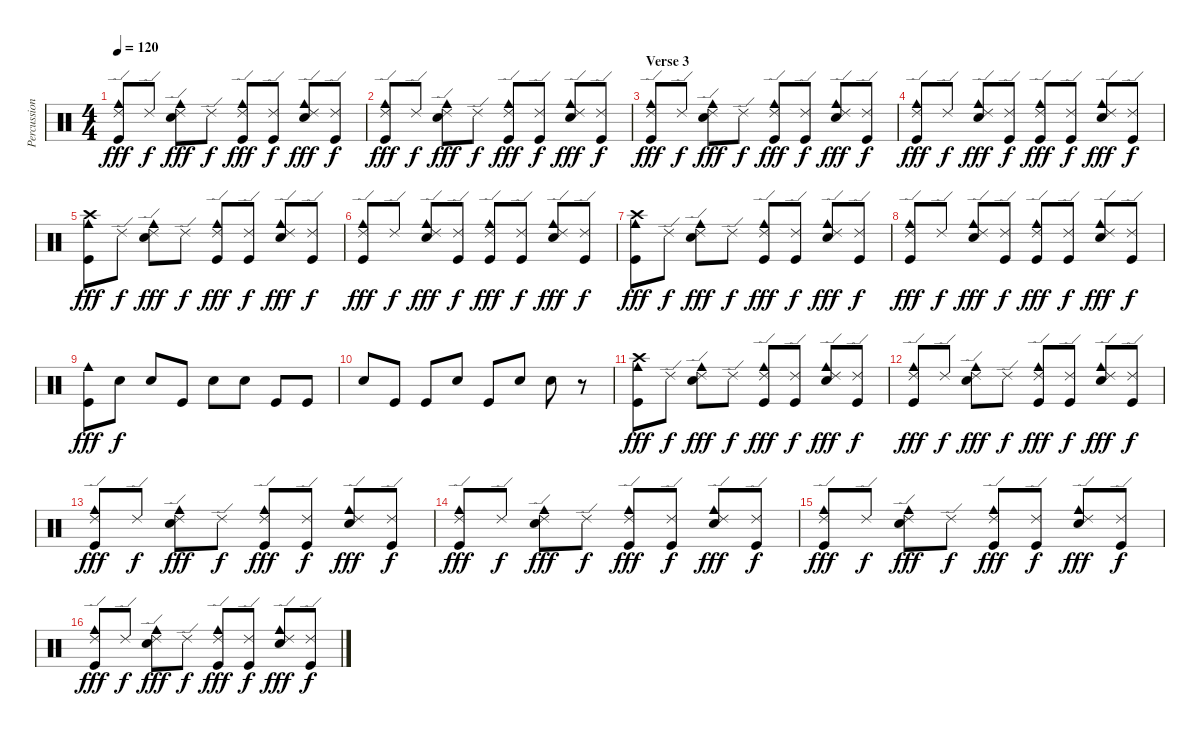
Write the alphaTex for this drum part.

\track ("Percussion" "Percussion") {instrument percussion}
\staff {score}
\articulation defaults
\ts (4 4)
\tempo 120
\clef neutral
\ks c
("Ride (edge) 2" "Cowbell medium (hit)" "Kick (hit)").8{dy fff} "Ride (edge) 2".8{dy f} ("Ride (edge) 2" "Cowbell medium (hit)" "Snare (hit) 2").8{dy fff} "Ride (edge) 2".8{dy f} ("Ride (edge) 2" "Cowbell medium (hit)" "Kick (hit)").8{dy fff} ("Ride (edge) 2" "Kick (hit)").8{dy f} ("Ride (edge) 2" "Cowbell medium (hit)" "Snare (hit) 2").8{dy fff} ("Ride (edge) 2" "Kick (hit)").8{dy f} |
("Ride (edge) 2" "Cowbell medium (hit)" "Kick (hit)").8{dy fff} "Ride (edge) 2".8{dy f} ("Ride (edge) 2" "Cowbell medium (hit)" "Snare (hit) 2").8{dy fff} "Ride (edge) 2".8{dy f} ("Ride (edge) 2" "Cowbell medium (hit)" "Kick (hit)").8{dy fff} ("Ride (edge) 2" "Kick (hit)").8{dy f} ("Ride (edge) 2" "Cowbell medium (hit)" "Snare (hit) 2").8{dy fff} ("Ride (edge) 2" "Kick (hit)").8{dy f} |
\section ("" "Verse 3")
("Ride (edge) 2" "Cowbell medium (hit)" "Kick (hit)").8{dy fff} "Ride (edge) 2".8{dy f} ("Ride (edge) 2" "Cowbell medium (hit)" "Snare (hit) 2").8{dy fff} "Ride (edge) 2".8{dy f} ("Ride (edge) 2" "Cowbell medium (hit)" "Kick (hit)").8{dy fff} ("Ride (edge) 2" "Kick (hit)").8{dy f} ("Ride (edge) 2" "Cowbell medium (hit)" "Snare (hit) 2").8{dy fff} ("Ride (edge) 2" "Kick (hit)").8{dy f} |
("Ride (edge) 2" "Cowbell medium (hit)" "Kick (hit)").8{dy fff} "Ride (edge) 2".8{dy f} ("Ride (edge) 2" "Cowbell medium (hit)" "Snare (hit) 2").8{dy fff} ("Ride (edge) 2" "Kick (hit)").8{dy f} ("Ride (edge) 2" "Cowbell medium (hit)" "Kick (hit)").8{dy fff} ("Ride (edge) 2" "Kick (hit)").8{dy f} ("Ride (edge) 2" "Cowbell medium (hit)" "Snare (hit) 2").8{dy fff} ("Ride (edge) 2" "Kick (hit)").8{dy f} |
("Crash high (hit)" "Cowbell medium (hit)" "Kick (hit)").8{dy fff} "Ride (edge) 2".8{dy f} ("Ride (edge) 2" "Cowbell medium (hit)" "Snare (hit) 2").8{dy fff} "Ride (edge) 2".8{dy f} ("Ride (edge) 2" "Cowbell medium (hit)" "Kick (hit)").8{dy fff} ("Ride (edge) 2" "Kick (hit)").8{dy f} ("Ride (edge) 2" "Cowbell medium (hit)" "Snare (hit) 2").8{dy fff} ("Ride (edge) 2" "Kick (hit)").8{dy f} |
("Ride (edge) 2" "Cowbell medium (hit)" "Kick (hit)").8{dy fff} "Ride (edge) 2".8{dy f} ("Ride (edge) 2" "Cowbell medium (hit)" "Snare (hit) 2").8{dy fff} ("Ride (edge) 2" "Kick (hit)").8{dy f} ("Ride (edge) 2" "Cowbell medium (hit)" "Kick (hit)").8{dy fff} ("Ride (edge) 2" "Kick (hit)").8{dy f} ("Ride (edge) 2" "Cowbell medium (hit)" "Snare (hit) 2").8{dy fff} ("Ride (edge) 2" "Kick (hit)").8{dy f} |
("Crash high (hit)" "Cowbell medium (hit)" "Kick (hit)").8{dy fff} "Ride (edge) 2".8{dy f} ("Ride (edge) 2" "Cowbell medium (hit)" "Snare (hit) 2").8{dy fff} "Ride (edge) 2".8{dy f} ("Ride (edge) 2" "Cowbell medium (hit)" "Kick (hit)").8{dy fff} ("Ride (edge) 2" "Kick (hit)").8{dy f} ("Ride (edge) 2" "Cowbell medium (hit)" "Snare (hit) 2").8{dy fff} ("Ride (edge) 2" "Kick (hit)").8{dy f} |
("Ride (edge) 2" "Cowbell medium (hit)" "Kick (hit)").8{dy fff} "Ride (edge) 2".8{dy f} ("Ride (edge) 2" "Cowbell medium (hit)" "Snare (hit) 2").8{dy fff} ("Ride (edge) 2" "Kick (hit)").8{dy f} ("Ride (edge) 2" "Cowbell medium (hit)" "Kick (hit)").8{dy fff} ("Ride (edge) 2" "Kick (hit)").8{dy f} ("Ride (edge) 2" "Cowbell medium (hit)" "Snare (hit) 2").8{dy fff} ("Ride (edge) 2" "Kick (hit)").8{dy f} |
("Cowbell medium (hit)" "Kick (hit)").8{dy fff} "Snare (hit) 2".8{dy f} "Snare (hit) 2".8 "Kick (hit)".8 "Snare (hit) 2".8 "Snare (hit) 2".8 "Kick (hit)".8 "Kick (hit)".8 |
"Snare (hit) 2".8 "Kick (hit)".8 "Kick (hit)".8 "Snare (hit) 2".8 "Kick (hit)".8 "Snare (hit) 2".8 "Snare (hit) 2".8 r.8 |
("Crash high (hit)" "Cowbell medium (hit)" "Kick (hit)").8{dy fff} "Ride (edge) 2".8{dy f} ("Ride (edge) 2" "Cowbell medium (hit)" "Snare (hit) 2").8{dy fff} "Ride (edge) 2".8{dy f} ("Ride (edge) 2" "Cowbell medium (hit)" "Kick (hit)").8{dy fff} ("Ride (edge) 2" "Kick (hit)").8{dy f} ("Ride (edge) 2" "Cowbell medium (hit)" "Snare (hit) 2").8{dy fff} ("Ride (edge) 2" "Kick (hit)").8{dy f} |
("Ride (edge) 2" "Cowbell medium (hit)" "Kick (hit)").8{dy fff} "Ride (edge) 2".8{dy f} ("Ride (edge) 2" "Cowbell medium (hit)" "Snare (hit) 2").8{dy fff} "Ride (edge) 2".8{dy f} ("Ride (edge) 2" "Cowbell medium (hit)" "Kick (hit)").8{dy fff} ("Ride (edge) 2" "Kick (hit)").8{dy f} ("Ride (edge) 2" "Cowbell medium (hit)" "Snare (hit) 2").8{dy fff} ("Ride (edge) 2" "Kick (hit)").8{dy f} |
("Ride (edge) 2" "Cowbell medium (hit)" "Kick (hit)").8{dy fff} "Ride (edge) 2".8{dy f} ("Ride (edge) 2" "Cowbell medium (hit)" "Snare (hit) 2").8{dy fff} "Ride (edge) 2".8{dy f} ("Ride (edge) 2" "Cowbell medium (hit)" "Kick (hit)").8{dy fff} ("Ride (edge) 2" "Kick (hit)").8{dy f} ("Ride (edge) 2" "Cowbell medium (hit)" "Snare (hit) 2").8{dy fff} ("Ride (edge) 2" "Kick (hit)").8{dy f} |
("Ride (edge) 2" "Cowbell medium (hit)" "Kick (hit)").8{dy fff} "Ride (edge) 2".8{dy f} ("Ride (edge) 2" "Cowbell medium (hit)" "Snare (hit) 2").8{dy fff} "Ride (edge) 2".8{dy f} ("Ride (edge) 2" "Cowbell medium (hit)" "Kick (hit)").8{dy fff} ("Ride (edge) 2" "Kick (hit)").8{dy f} ("Ride (edge) 2" "Cowbell medium (hit)" "Snare (hit) 2").8{dy fff} ("Ride (edge) 2" "Kick (hit)").8{dy f} |
("Ride (edge) 2" "Cowbell medium (hit)" "Kick (hit)").8{dy fff} "Ride (edge) 2".8{dy f} ("Ride (edge) 2" "Cowbell medium (hit)" "Snare (hit) 2").8{dy fff} "Ride (edge) 2".8{dy f} ("Ride (edge) 2" "Cowbell medium (hit)" "Kick (hit)").8{dy fff} ("Ride (edge) 2" "Kick (hit)").8{dy f} ("Ride (edge) 2" "Cowbell medium (hit)" "Snare (hit) 2").8{dy fff} ("Ride (edge) 2" "Kick (hit)").8{dy f} |
("Ride (edge) 2" "Cowbell medium (hit)" "Kick (hit)").8{dy fff} "Ride (edge) 2".8{dy f} ("Ride (edge) 2" "Cowbell medium (hit)" "Snare (hit) 2").8{dy fff} "Ride (edge) 2".8{dy f} ("Ride (edge) 2" "Cowbell medium (hit)" "Kick (hit)").8{dy fff} ("Ride (edge) 2" "Kick (hit)").8{dy f} ("Ride (edge) 2" "Cowbell medium (hit)" "Snare (hit) 2").8{dy fff} ("Ride (edge) 2" "Kick (hit)").8{dy f}
